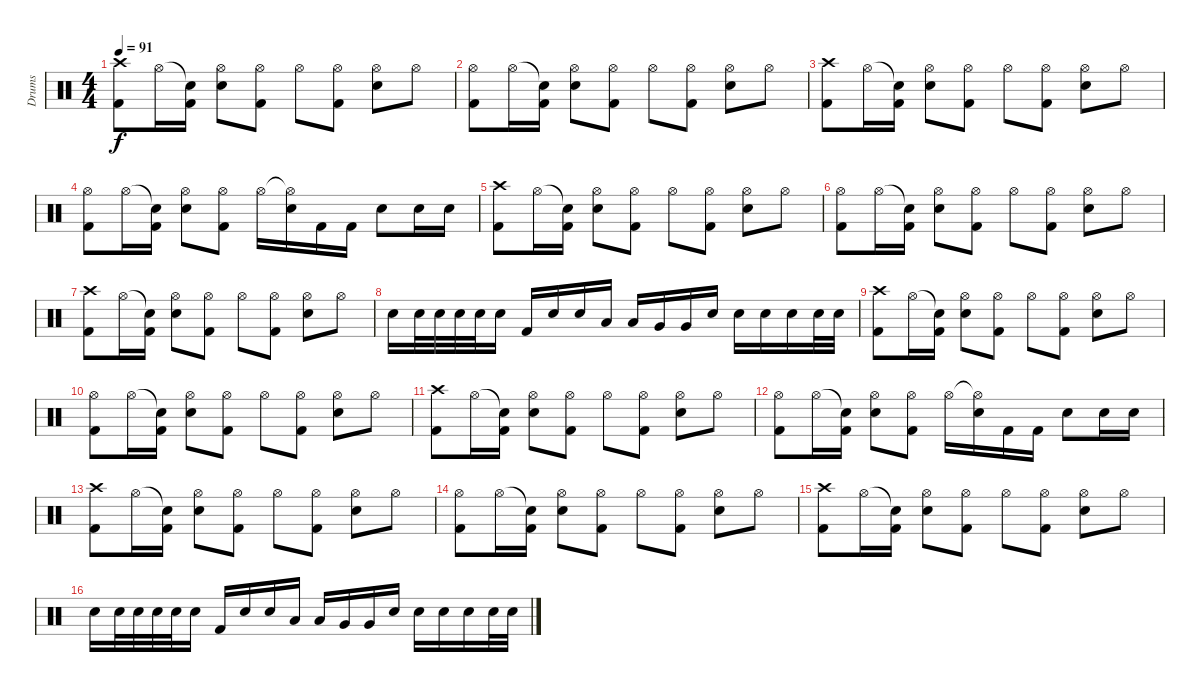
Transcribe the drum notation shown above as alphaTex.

\track ("Drums" "Drums") {instrument percussion}
\staff {score}
\articulation defaults
\ts (4 4)
\tempo 91
\clef neutral
\ks c
("Crash high (hit)" "Kick (hit) 2").8{dy f} "Hi-Hat (open)".16 ("Snare (hit)"{t} "Kick (hit) 2").16 ("Hi-Hat (open)" "Electric Snare (hit)").8 ("Hi-Hat (open)" "Kick (hit) 2").8 "Hi-Hat (open)".8 ("Hi-Hat (open)" "Kick (hit) 2").8 ("Hi-Hat (open)" "Electric Snare (hit)").8 "Hi-Hat (open)".8 |
("Hi-Hat (open)" "Kick (hit) 2").8 "Hi-Hat (open)".16 ("Snare (hit)"{t} "Kick (hit) 2").16 ("Hi-Hat (open)" "Electric Snare (hit)").8 ("Hi-Hat (open)" "Kick (hit) 2").8 "Hi-Hat (open)".8 ("Hi-Hat (open)" "Kick (hit) 2").8 ("Hi-Hat (open)" "Electric Snare (hit)").8 "Hi-Hat (open)".8 |
("Crash high (hit)" "Kick (hit) 2").8 "Hi-Hat (open)".16 ("Snare (hit)"{t} "Kick (hit) 2").16 ("Hi-Hat (open)" "Electric Snare (hit)").8 ("Hi-Hat (open)" "Kick (hit) 2").8 "Hi-Hat (open)".8 ("Hi-Hat (open)" "Kick (hit) 2").8 ("Hi-Hat (open)" "Electric Snare (hit)").8 "Hi-Hat (open)".8 |
("Hi-Hat (open)" "Kick (hit) 2").8 "Hi-Hat (open)".16 ("Snare (hit)"{t} "Kick (hit) 2").16 ("Hi-Hat (open)" "Electric Snare (hit)").8 ("Hi-Hat (open)" "Kick (hit) 2").8 "Hi-Hat (open)".16 ("Hi-Hat (open)"{t} "Electric Snare (hit)").16 "Kick (hit) 2".16 "Kick (hit) 2".16 "Electric Snare (hit)".8 "Electric Snare (hit)".16 "Electric Snare (hit)".16 |
("Crash high (hit)" "Kick (hit) 2").8 "Hi-Hat (open)".16 ("Snare (hit)"{t} "Kick (hit) 2").16 ("Hi-Hat (open)" "Electric Snare (hit)").8 ("Hi-Hat (open)" "Kick (hit) 2").8 "Hi-Hat (open)".8 ("Hi-Hat (open)" "Kick (hit) 2").8 ("Hi-Hat (open)" "Electric Snare (hit)").8 "Hi-Hat (open)".8 |
("Hi-Hat (open)" "Kick (hit) 2").8 "Hi-Hat (open)".16 ("Snare (hit)"{t} "Kick (hit) 2").16 ("Hi-Hat (open)" "Electric Snare (hit)").8 ("Hi-Hat (open)" "Kick (hit) 2").8 "Hi-Hat (open)".8 ("Hi-Hat (open)" "Kick (hit) 2").8 ("Hi-Hat (open)" "Electric Snare (hit)").8 "Hi-Hat (open)".8 |
("Crash high (hit)" "Kick (hit) 2").8 "Hi-Hat (open)".16 ("Snare (hit)"{t} "Kick (hit) 2").16 ("Hi-Hat (open)" "Electric Snare (hit)").8 ("Hi-Hat (open)" "Kick (hit) 2").8 "Hi-Hat (open)".8 ("Hi-Hat (open)" "Kick (hit) 2").8 ("Hi-Hat (open)" "Electric Snare (hit)").8 "Hi-Hat (open)".8 |
"Electric Snare (hit)".16 "Electric Snare (hit)".32 "Electric Snare (hit)".32 "Electric Snare (hit)".32 "Electric Snare (hit)".32 "Electric Snare (hit)".16 "Kick (hit) 2".16 "Electric Snare (hit)".16 "Electric Snare (hit)".16 "Low Tom (hit)".16 "Low Tom (hit)".16 "Very Low Tom (hit)".16 "Very Low Tom (hit)".16 "Electric Snare (hit)".16 "Electric Snare (hit)".16 "Electric Snare (hit)".16 "Electric Snare (hit)".16 "Electric Snare (hit)".32 "Electric Snare (hit)".32 |
("Crash high (hit)" "Kick (hit) 2").8 "Hi-Hat (open)".16 ("Snare (hit)"{t} "Kick (hit) 2").16 ("Hi-Hat (open)" "Electric Snare (hit)").8 ("Hi-Hat (open)" "Kick (hit) 2").8 "Hi-Hat (open)".8 ("Hi-Hat (open)" "Kick (hit) 2").8 ("Hi-Hat (open)" "Electric Snare (hit)").8 "Hi-Hat (open)".8 |
("Hi-Hat (open)" "Kick (hit) 2").8 "Hi-Hat (open)".16 ("Snare (hit)"{t} "Kick (hit) 2").16 ("Hi-Hat (open)" "Electric Snare (hit)").8 ("Hi-Hat (open)" "Kick (hit) 2").8 "Hi-Hat (open)".8 ("Hi-Hat (open)" "Kick (hit) 2").8 ("Hi-Hat (open)" "Electric Snare (hit)").8 "Hi-Hat (open)".8 |
("Crash high (hit)" "Kick (hit) 2").8 "Hi-Hat (open)".16 ("Snare (hit)"{t} "Kick (hit) 2").16 ("Hi-Hat (open)" "Electric Snare (hit)").8 ("Hi-Hat (open)" "Kick (hit) 2").8 "Hi-Hat (open)".8 ("Hi-Hat (open)" "Kick (hit) 2").8 ("Hi-Hat (open)" "Electric Snare (hit)").8 "Hi-Hat (open)".8 |
("Hi-Hat (open)" "Kick (hit) 2").8 "Hi-Hat (open)".16 ("Snare (hit)"{t} "Kick (hit) 2").16 ("Hi-Hat (open)" "Electric Snare (hit)").8 ("Hi-Hat (open)" "Kick (hit) 2").8 "Hi-Hat (open)".16 ("Hi-Hat (open)"{t} "Electric Snare (hit)").16 "Kick (hit) 2".16 "Kick (hit) 2".16 "Electric Snare (hit)".8 "Electric Snare (hit)".16 "Electric Snare (hit)".16 |
("Crash high (hit)" "Kick (hit) 2").8 "Hi-Hat (open)".16 ("Snare (hit)"{t} "Kick (hit) 2").16 ("Hi-Hat (open)" "Electric Snare (hit)").8 ("Hi-Hat (open)" "Kick (hit) 2").8 "Hi-Hat (open)".8 ("Hi-Hat (open)" "Kick (hit) 2").8 ("Hi-Hat (open)" "Electric Snare (hit)").8 "Hi-Hat (open)".8 |
("Hi-Hat (open)" "Kick (hit) 2").8 "Hi-Hat (open)".16 ("Snare (hit)"{t} "Kick (hit) 2").16 ("Hi-Hat (open)" "Electric Snare (hit)").8 ("Hi-Hat (open)" "Kick (hit) 2").8 "Hi-Hat (open)".8 ("Hi-Hat (open)" "Kick (hit) 2").8 ("Hi-Hat (open)" "Electric Snare (hit)").8 "Hi-Hat (open)".8 |
("Crash high (hit)" "Kick (hit) 2").8 "Hi-Hat (open)".16 ("Snare (hit)"{t} "Kick (hit) 2").16 ("Hi-Hat (open)" "Electric Snare (hit)").8 ("Hi-Hat (open)" "Kick (hit) 2").8 "Hi-Hat (open)".8 ("Hi-Hat (open)" "Kick (hit) 2").8 ("Hi-Hat (open)" "Electric Snare (hit)").8 "Hi-Hat (open)".8 |
"Electric Snare (hit)".16 "Electric Snare (hit)".32 "Electric Snare (hit)".32 "Electric Snare (hit)".32 "Electric Snare (hit)".32 "Electric Snare (hit)".16 "Kick (hit) 2".16 "Electric Snare (hit)".16 "Electric Snare (hit)".16 "Low Tom (hit)".16 "Low Tom (hit)".16 "Very Low Tom (hit)".16 "Very Low Tom (hit)".16 "Electric Snare (hit)".16 "Electric Snare (hit)".16 "Electric Snare (hit)".16 "Electric Snare (hit)".16 "Electric Snare (hit)".32 "Electric Snare (hit)".32
